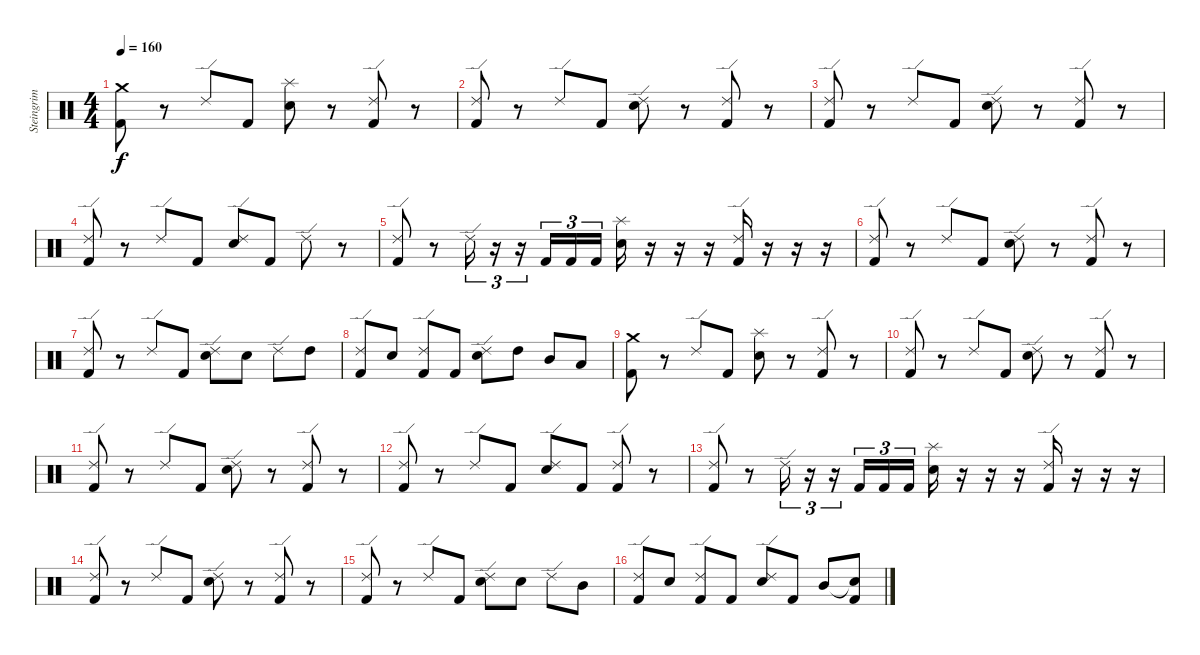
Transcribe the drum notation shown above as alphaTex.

\track ("Steingrim Trommur" "Steingrim ") {instrument percussion}
\staff {score}
\articulation defaults
\ts (4 4)
\tempo 160
\clef neutral
\ks c
("Crash medium (hit)" "Kick (hit) 2").8{dy f} r.8 "Ride (edge) 2".8 "Kick (hit) 2".8 ("Splash (hit)" "Electric Snare (hit)").8 r.8 ("Ride (edge) 2" "Kick (hit) 2").8 r.8 |
("Ride (edge) 2" "Kick (hit) 2").8 r.8 "Ride (edge) 2".8 "Kick (hit) 2".8 ("Ride (edge) 2" "Electric Snare (hit)").8 r.8 ("Ride (edge) 2" "Kick (hit) 2").8 r.8 |
("Ride (edge) 2" "Kick (hit) 2").8 r.8 "Ride (edge) 2".8 "Kick (hit) 2".8 ("Ride (edge) 2" "Electric Snare (hit)").8 r.8 ("Ride (edge) 2" "Kick (hit) 2").8 r.8 |
("Ride (edge) 2" "Kick (hit) 2").8 r.8 "Ride (edge) 2".8 "Kick (hit) 2".8 ("Ride (edge) 2" "Electric Snare (hit)").8 "Kick (hit) 2".8 "Ride (edge) 2".8 r.8 |
("Ride (edge) 2" "Kick (hit) 2").8 r.8 "Ride (edge) 2".16{tu (3 2)} r.16{tu (3 2)} r.16{tu (3 2)} "Kick (hit) 2".16{tu (3 2)} "Kick (hit) 2".16{tu (3 2)} "Kick (hit) 2".16{tu (3 2)} ("Splash (hit)" "Electric Snare (hit)").16 r.16 r.16 r.16 ("Ride (edge) 2" "Kick (hit) 2").16 r.16 r.16 r.16 |
("Ride (edge) 2" "Kick (hit) 2").8 r.8 "Ride (edge) 2".8 "Kick (hit) 2".8 ("Ride (edge) 2" "Electric Snare (hit)").8 r.8 ("Ride (edge) 2" "Kick (hit) 2").8 r.8 |
("Ride (edge) 2" "Kick (hit) 2").8 r.8 "Ride (edge) 2".8 "Kick (hit) 2".8 ("Ride (edge) 2" "Electric Snare (hit)").8 "Electric Snare (hit)".8 "Ride (edge) 2".8 "High Tom (hit)".8 |
("Ride (edge) 2" "Kick (hit) 2").8 "Electric Snare (hit)".8 ("Ride (edge) 2" "Kick (hit) 2").8 "Kick (hit) 2".8 ("Ride (edge) 2" "Electric Snare (hit)").8 "High Tom (hit)".8 "Mid Tom (hit)".8 "Low Tom (hit)".8 |
("Crash medium (hit)" "Kick (hit) 2").8 r.8 "Ride (edge) 2".8 "Kick (hit) 2".8 ("Splash (hit)" "Electric Snare (hit)").8 r.8 ("Ride (edge) 2" "Kick (hit) 2").8 r.8 |
("Ride (edge) 2" "Kick (hit) 2").8 r.8 "Ride (edge) 2".8 "Kick (hit) 2".8 ("Ride (edge) 2" "Electric Snare (hit)").8 r.8 ("Ride (edge) 2" "Kick (hit) 2").8 r.8 |
("Ride (edge) 2" "Kick (hit) 2").8 r.8 "Ride (edge) 2".8 "Kick (hit) 2".8 ("Ride (edge) 2" "Electric Snare (hit)").8 r.8 ("Ride (edge) 2" "Kick (hit) 2").8 r.8 |
("Ride (edge) 2" "Kick (hit) 2").8 r.8 "Ride (edge) 2".8 "Kick (hit) 2".8 ("Ride (edge) 2" "Electric Snare (hit)").8 "Kick (hit) 2".8 ("Ride (edge) 2" "Kick (hit) 2").8 r.8 |
("Ride (edge) 2" "Kick (hit) 2").8 r.8 "Ride (edge) 2".16{tu (3 2)} r.16{tu (3 2)} r.16{tu (3 2)} "Kick (hit) 2".16{tu (3 2)} "Kick (hit) 2".16{tu (3 2)} "Kick (hit) 2".16{tu (3 2)} ("Splash (hit)" "Electric Snare (hit)").16 r.16 r.16 r.16 ("Ride (edge) 2" "Kick (hit) 2").16 r.16 r.16 r.16 |
("Ride (edge) 2" "Kick (hit) 2").8 r.8 "Ride (edge) 2".8 "Kick (hit) 2".8 ("Ride (edge) 2" "Electric Snare (hit)").8 r.8 ("Ride (edge) 2" "Kick (hit) 2").8 r.8 |
("Ride (edge) 2" "Kick (hit) 2").8 r.8 "Ride (edge) 2".8 "Kick (hit) 2".8 ("Ride (edge) 2" "Electric Snare (hit)").8 "Electric Snare (hit)".8 "Ride (edge) 2".8 "Mid Tom (hit)".8 |
("Ride (edge) 2" "Kick (hit) 2").8 "Electric Snare (hit)".8 ("Ride (edge) 2" "Kick (hit) 2").8 "Kick (hit) 2".8 ("Ride (edge) 2" "Electric Snare (hit)").8 "Kick (hit) 2".8 "Mid Tom (hit)".8 ("Snare (hit)"{t} "Kick (hit) 2").8
